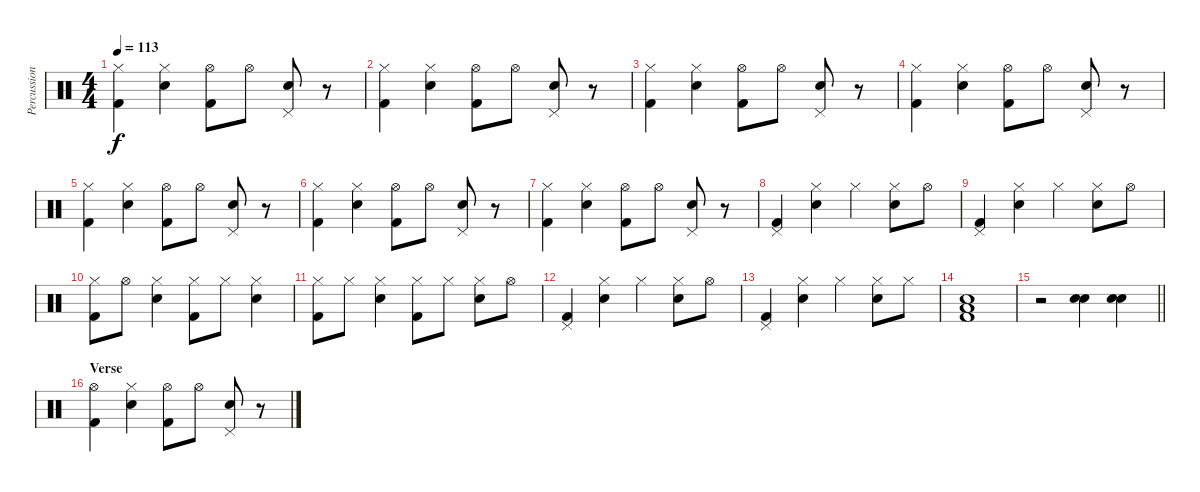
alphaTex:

\track ("Percussion" "Percussion") {instrument percussion bank 3}
\staff {score}
\articulation defaults
\ts (4 4)
\tempo 113
\clef neutral
\ks c
("Hi-Hat (closed)" "Kick (hit) 2").4{dy f} ("Hi-Hat (closed)" "Snare (hit) 2").4 ("Hi-Hat (open)" "Kick (hit) 2").8 "Hi-Hat (open)".8 ("Pedal Hi-Hat (hit)" "Snare (hit) 2").8 r.8 |
("Hi-Hat (closed)" "Kick (hit) 2").4 ("Hi-Hat (closed)" "Snare (hit) 2").4 ("Hi-Hat (open)" "Kick (hit) 2").8 "Hi-Hat (open)".8 ("Pedal Hi-Hat (hit)" "Snare (hit) 2").8 r.8 |
("Hi-Hat (closed)" "Kick (hit) 2").4 ("Hi-Hat (closed)" "Snare (hit) 2").4 ("Hi-Hat (open)" "Kick (hit) 2").8 "Hi-Hat (open)".8 ("Pedal Hi-Hat (hit)" "Snare (hit) 2").8 r.8 |
("Hi-Hat (closed)" "Kick (hit) 2").4 ("Hi-Hat (closed)" "Snare (hit) 2").4 ("Hi-Hat (open)" "Kick (hit) 2").8 "Hi-Hat (open)".8 ("Pedal Hi-Hat (hit)" "Snare (hit) 2").8 r.8 |
("Hi-Hat (closed)" "Kick (hit) 2").4 ("Hi-Hat (closed)" "Snare (hit) 2").4 ("Hi-Hat (open)" "Kick (hit) 2").8 "Hi-Hat (open)".8 ("Pedal Hi-Hat (hit)" "Snare (hit) 2").8 r.8 |
("Hi-Hat (closed)" "Kick (hit) 2").4 ("Hi-Hat (closed)" "Snare (hit) 2").4 ("Hi-Hat (open)" "Kick (hit) 2").8 "Hi-Hat (open)".8 ("Pedal Hi-Hat (hit)" "Snare (hit) 2").8 r.8 |
("Hi-Hat (closed)" "Kick (hit) 2").4 ("Hi-Hat (closed)" "Snare (hit) 2").4 ("Hi-Hat (open)" "Kick (hit) 2").8 "Hi-Hat (open)".8 ("Pedal Hi-Hat (hit)" "Snare (hit) 2").8 r.8 |
("Pedal Hi-Hat (hit)" "Kick (hit) 2").4 ("Hi-Hat (closed)" "Snare (hit) 2").4 "Hi-Hat (closed)".4 ("Hi-Hat (closed)" "Snare (hit) 2").8 "Hi-Hat (open)".8 |
("Pedal Hi-Hat (hit)" "Kick (hit) 2").4 ("Hi-Hat (closed)" "Snare (hit) 2").4 "Hi-Hat (closed)".4 ("Hi-Hat (closed)" "Snare (hit) 2").8 "Hi-Hat (open)".8 |
("Hi-Hat (closed)" "Kick (hit) 2").8 "Hi-Hat (open)".8 ("Hi-Hat (closed)" "Snare (hit) 2").4 ("Hi-Hat (closed)" "Kick (hit) 2").8 "Hi-Hat (closed)".8 ("Hi-Hat (closed)" "Snare (hit) 2").4 |
("Hi-Hat (closed)" "Kick (hit) 2").8 "Hi-Hat (closed)".8 ("Hi-Hat (closed)" "Snare (hit) 2").4 ("Hi-Hat (closed)" "Kick (hit) 2").8 "Hi-Hat (closed)".8 ("Hi-Hat (closed)" "Snare (hit) 2").8 "Hi-Hat (open)".8 |
("Pedal Hi-Hat (hit)" "Kick (hit) 2").4 ("Hi-Hat (closed)" "Snare (hit) 2").4 "Hi-Hat (closed)".4 ("Hi-Hat (closed)" "Snare (hit) 2").8 "Hi-Hat (open)".8 |
("Pedal Hi-Hat (hit)" "Kick (hit) 2").4 ("Hi-Hat (closed)" "Snare (hit) 2").4 "Hi-Hat (closed)".4 ("Hi-Hat (closed)" "Snare (hit) 2").8 "Hi-Hat (closed)".8 |
("Low Tom (hit)" "Snare (hit) 2" "Kick (hit) 2").1 |
\barLineRight lightlight
r.2 ("Snare (hit) 2" "Snare (hit) 2").4 ("Snare (hit) 2" "Snare (hit) 2").4 |
\section ("" "Verse")
("Hi-Hat (open)" "Kick (hit) 2").4 ("Hi-Hat (closed)" "Snare (hit) 2").4 ("Hi-Hat (open)" "Kick (hit) 2").8 "Hi-Hat (open)".8 ("Pedal Hi-Hat (hit)" "Snare (hit) 2").8 r.8
